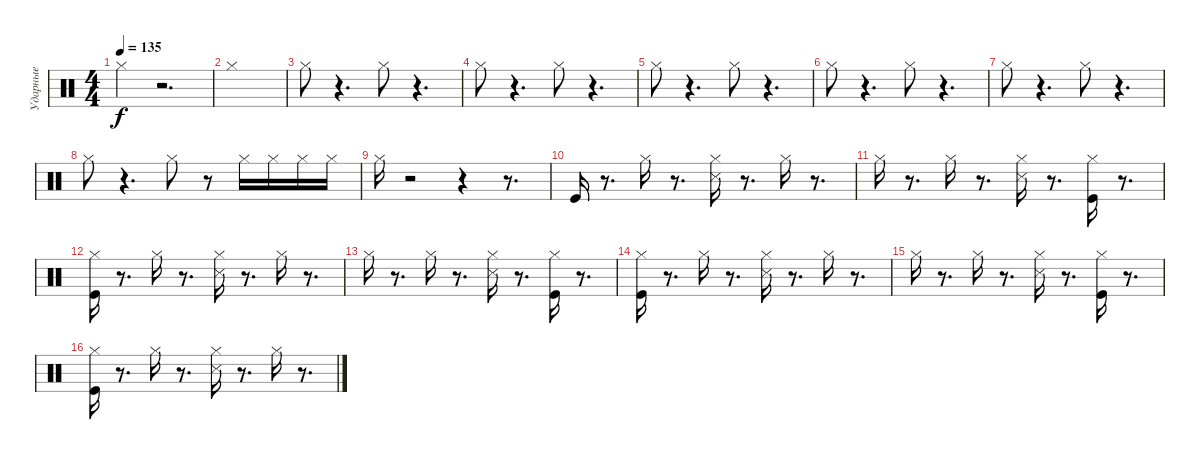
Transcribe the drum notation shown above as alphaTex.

\track ("Ударные" "Ударные") {instrument percussion}
\staff {score}
\articulation defaults
\ts (4 4)
\tempo 135
\clef neutral
\ks c "Hi-Hat (closed)".4{dy f}
r.2{d} |
"Hi-Hat (closed)".1 |
"Hi-Hat (closed)".8 r.4{d} "Hi-Hat (closed)".8 r.4{d} |
"Hi-Hat (closed)".8 r.4{d} "Hi-Hat (closed)".8 r.4{d} |
"Hi-Hat (closed)".8 r.4{d} "Hi-Hat (closed)".8 r.4{d} |
"Hi-Hat (closed)".8 r.4{d} "Hi-Hat (closed)".8 r.4{d} |
"Hi-Hat (closed)".8 r.4{d} "Hi-Hat (closed)".8 r.4{d} |
"Hi-Hat (closed)".8 r.4{d} "Hi-Hat (closed)".8 r.8 "Hi-Hat (closed)".16 "Hi-Hat (closed)".16 "Hi-Hat (closed)".16 "Hi-Hat (closed)".16 |
"Hi-Hat (closed)".16 r.2 r.4 r.8{d} |
"Kick (hit)".16 r.8{d} "Hi-Hat (closed)".16 r.8{d} ("Hi-Hat (closed)" "Snare (side stick) 3").16 r.8{d} "Hi-Hat (closed)".16 r.8{d} |
"Hi-Hat (closed)".16 r.8{d} "Hi-Hat (closed)".16 r.8{d} ("Hi-Hat (closed)" "Snare (side stick) 3").16 r.8{d} ("Kick (hit)" "Hi-Hat (closed)").16 r.8{d} |
("Kick (hit)" "Hi-Hat (closed)").16 r.8{d} "Hi-Hat (closed)".16 r.8{d} ("Hi-Hat (closed)" "Snare (side stick) 3").16 r.8{d} "Hi-Hat (closed)".16 r.8{d} |
"Hi-Hat (closed)".16 r.8{d} "Hi-Hat (closed)".16 r.8{d} ("Hi-Hat (closed)" "Snare (side stick) 3").16 r.8{d} ("Kick (hit)" "Hi-Hat (closed)").16 r.8{d} |
("Kick (hit)" "Hi-Hat (closed)").16 r.8{d} "Hi-Hat (closed)".16 r.8{d} ("Hi-Hat (closed)" "Snare (side stick) 3").16 r.8{d} "Hi-Hat (closed)".16 r.8{d} |
"Hi-Hat (closed)".16 r.8{d} "Hi-Hat (closed)".16 r.8{d} ("Hi-Hat (closed)" "Snare (side stick) 3").16 r.8{d} ("Kick (hit)" "Hi-Hat (closed)").16 r.8{d} |
("Kick (hit)" "Hi-Hat (closed)").16 r.8{d} "Hi-Hat (closed)".16 r.8{d} ("Hi-Hat (closed)" "Snare (side stick) 3").16 r.8{d} "Hi-Hat (closed)".16 r.8{d}
